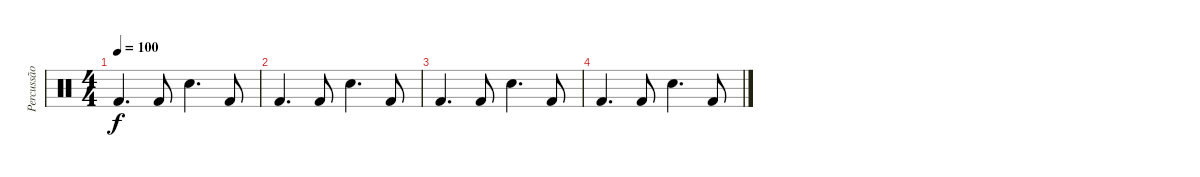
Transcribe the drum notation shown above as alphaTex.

\track ("Percussão" "Percussão") {instrument percussion}
\staff {score}
\articulation defaults
\ts (4 4)
\tempo 100
\clef neutral
\ks c "Kick (hit) 2".4{d dy f} "Kick (hit) 2".8 "Electric Snare (hit)".4{d} "Kick (hit) 2".8
|
"Kick (hit) 2".4{d} "Kick (hit) 2".8 "Electric Snare (hit)".4{d} "Kick (hit) 2".8 |
"Kick (hit) 2".4{d} "Kick (hit) 2".8 "Electric Snare (hit)".4{d} "Kick (hit) 2".8 |
"Kick (hit) 2".4{d} "Kick (hit) 2".8 "Electric Snare (hit)".4{d} "Kick (hit) 2".8
